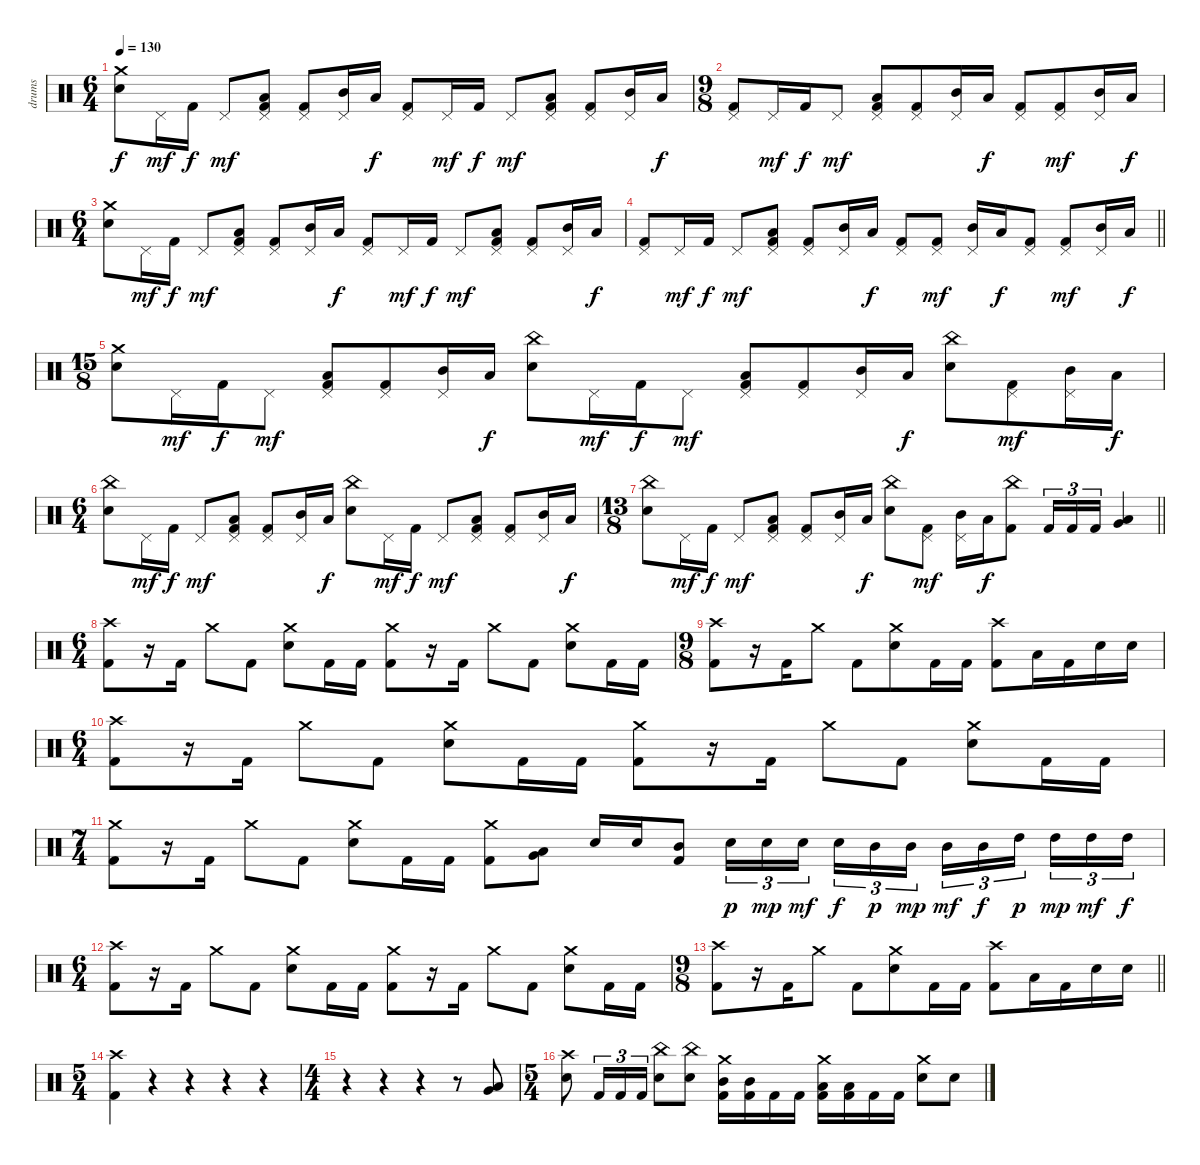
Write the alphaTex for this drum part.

\track ("drums" "drums") {instrument percussion}
\staff {score}
\articulation defaults
\ts (6 4)
\section ("" "")
\tempo 130
\clef neutral
\ks c
("Crash medium (hit)" "Electric Snare (hit)").8{dy f} "Pedal Hi-Hat (hit)".16{dy mf} "Kick (hit) 2".16{dy f} "Pedal Hi-Hat (hit)".8{dy mf} ("Pedal Hi-Hat (hit)" "Low Floor Tom (hit)" "Kick (hit) 2").8 ("Pedal Hi-Hat (hit)" "Kick (hit) 2").8 ("Pedal Hi-Hat (hit)" "Mid Tom (hit)").16 "Low Tom (hit)".16{dy f} ("Pedal Hi-Hat (hit)" "Kick (hit) 2").8 "Pedal Hi-Hat (hit)".16{dy mf} "Kick (hit) 2".16{dy f} "Pedal Hi-Hat (hit)".8{dy mf} ("Pedal Hi-Hat (hit)" "Low Floor Tom (hit)" "Kick (hit) 2").8 ("Pedal Hi-Hat (hit)" "Kick (hit) 2").8 ("Pedal Hi-Hat (hit)" "Mid Tom (hit)").16 "Low Tom (hit)".16{dy f} |
\ts (9 8)
("Pedal Hi-Hat (hit)" "Kick (hit) 2").8 "Pedal Hi-Hat (hit)".16{dy mf} "Kick (hit) 2".16{dy f} "Pedal Hi-Hat (hit)".8{dy mf} ("Pedal Hi-Hat (hit)" "Low Floor Tom (hit)" "Kick (hit) 2").8 ("Pedal Hi-Hat (hit)" "Kick (hit) 2").8 ("Pedal Hi-Hat (hit)" "Mid Tom (hit)").16 "Low Tom (hit)".16{dy f} ("Pedal Hi-Hat (hit)" "Kick (hit) 2").8 ("Pedal Hi-Hat (hit)" "Kick (hit) 2").8{dy mf} ("Pedal Hi-Hat (hit)" "Mid Tom (hit)").16 "Low Tom (hit)".16{dy f} |
\ts (6 4)
("Crash medium (hit)" "Electric Snare (hit)").8 "Pedal Hi-Hat (hit)".16{dy mf} "Kick (hit) 2".16{dy f} "Pedal Hi-Hat (hit)".8{dy mf} ("Pedal Hi-Hat (hit)" "Low Floor Tom (hit)" "Kick (hit) 2").8 ("Pedal Hi-Hat (hit)" "Kick (hit) 2").8 ("Pedal Hi-Hat (hit)" "Mid Tom (hit)").16 "Low Tom (hit)".16{dy f} ("Pedal Hi-Hat (hit)" "Kick (hit) 2").8 "Pedal Hi-Hat (hit)".16{dy mf} "Kick (hit) 2".16{dy f} "Pedal Hi-Hat (hit)".8{dy mf} ("Pedal Hi-Hat (hit)" "Low Floor Tom (hit)" "Kick (hit) 2").8 ("Pedal Hi-Hat (hit)" "Kick (hit) 2").8 ("Pedal Hi-Hat (hit)" "Mid Tom (hit)").16 "Low Tom (hit)".16{dy f} |
\barLineRight lightlight
("Pedal Hi-Hat (hit)" "Kick (hit) 2").8 "Pedal Hi-Hat (hit)".16{dy mf} "Kick (hit) 2".16{dy f} "Pedal Hi-Hat (hit)".8{dy mf} ("Pedal Hi-Hat (hit)" "Low Floor Tom (hit)" "Kick (hit) 2").8 ("Pedal Hi-Hat (hit)" "Kick (hit) 2").8 ("Pedal Hi-Hat (hit)" "Mid Tom (hit)").16 "Low Tom (hit)".16{dy f} ("Pedal Hi-Hat (hit)" "Kick (hit) 2").8 ("Pedal Hi-Hat (hit)" "Kick (hit) 2").8{dy mf} ("Pedal Hi-Hat (hit)" "Mid Tom (hit)").16 "Low Tom (hit)".16{dy f} ("Pedal Hi-Hat (hit)" "Kick (hit) 2").8 ("Pedal Hi-Hat (hit)" "Kick (hit) 2").8{dy mf} ("Pedal Hi-Hat (hit)" "Mid Tom (hit)").16 "Low Tom (hit)".16{dy f} |
\ts (15 8)
("Crash medium (hit)" "Electric Snare (hit)").8 "Pedal Hi-Hat (hit)".16{dy mf} "Kick (hit) 2".16{dy f} "Pedal Hi-Hat (hit)".8{dy mf} ("Pedal Hi-Hat (hit)" "Low Floor Tom (hit)" "Kick (hit) 2").8 ("Pedal Hi-Hat (hit)" "Kick (hit) 2").8 ("Pedal Hi-Hat (hit)" "Mid Tom (hit)").16 "Low Tom (hit)".16{dy f} ("China (hit)" "Electric Snare (hit)").8 "Pedal Hi-Hat (hit)".16{dy mf} "Kick (hit) 2".16{dy f} "Pedal Hi-Hat (hit)".8{dy mf} ("Pedal Hi-Hat (hit)" "Low Floor Tom (hit)" "Kick (hit) 2").8 ("Pedal Hi-Hat (hit)" "Kick (hit) 2").8 ("Pedal Hi-Hat (hit)" "Mid Tom (hit)").16 "Low Tom (hit)".16{dy f} ("China (hit)" "Electric Snare (hit)").8 ("Pedal Hi-Hat (hit)" "Kick (hit) 2").8{dy mf} ("Pedal Hi-Hat (hit)" "Mid Tom (hit)").16 "Low Tom (hit)".16{dy f} |
\ts (6 4)
("China (hit)" "Electric Snare (hit)").8 "Pedal Hi-Hat (hit)".16{dy mf} "Kick (hit) 2".16{dy f} "Pedal Hi-Hat (hit)".8{dy mf} ("Pedal Hi-Hat (hit)" "Low Floor Tom (hit)" "Kick (hit) 2").8 ("Pedal Hi-Hat (hit)" "Kick (hit) 2").8 ("Pedal Hi-Hat (hit)" "Mid Tom (hit)").16 "Low Tom (hit)".16{dy f} ("China (hit)" "Electric Snare (hit)").8 "Pedal Hi-Hat (hit)".16{dy mf} "Kick (hit) 2".16{dy f} "Pedal Hi-Hat (hit)".8{dy mf} ("Pedal Hi-Hat (hit)" "Low Floor Tom (hit)" "Kick (hit) 2").8 ("Pedal Hi-Hat (hit)" "Kick (hit) 2").8 ("Pedal Hi-Hat (hit)" "Mid Tom (hit)").16 "Low Tom (hit)".16{dy f} |
\ts (13 8)
\barLineRight lightlight
("China (hit)" "Electric Snare (hit)").8 "Pedal Hi-Hat (hit)".16{dy mf} "Kick (hit) 2".16{dy f} "Pedal Hi-Hat (hit)".8{dy mf} ("Pedal Hi-Hat (hit)" "Low Floor Tom (hit)" "Kick (hit) 2").8 ("Pedal Hi-Hat (hit)" "Kick (hit) 2").8 ("Pedal Hi-Hat (hit)" "Mid Tom (hit)").16 "Low Tom (hit)".16{dy f} ("China (hit)" "Electric Snare (hit)").8 ("Pedal Hi-Hat (hit)" "Kick (hit) 2").8{dy mf} ("Pedal Hi-Hat (hit)" "Mid Tom (hit)").16 "Low Tom (hit)".16{dy f} ("China (hit)" "Kick (hit) 2").8 "Kick (hit) 2".16{tu (3 2)} "Kick (hit) 2".16{tu (3 2)} "Kick (hit) 2".16{tu (3 2)} ("Very Low Tom (hit)" "Low Floor Tom (hit)").4 |
\ts (6 4)
\section ("" "")
("Crash high (hit)" "Kick (hit) 2").8 r.16 "Kick (hit) 2".16 "Crash medium (hit)".8 "Kick (hit) 2".8 ("Crash medium (hit)" "Electric Snare (hit)").8 "Kick (hit) 2".16 "Kick (hit) 2".16 ("Crash medium (hit)" "Kick (hit) 2").8 r.16 "Kick (hit) 2".16 "Crash medium (hit)".8 "Kick (hit) 2".8 ("Crash medium (hit)" "Electric Snare (hit)").8 "Kick (hit) 2".16 "Kick (hit) 2".16 |
\ts (9 8)
("Crash high (hit)" "Kick (hit) 2").8 r.16 "Kick (hit) 2".16 "Crash medium (hit)".8 "Kick (hit) 2".8 ("Crash medium (hit)" "Electric Snare (hit)").8 "Kick (hit) 2".16 "Kick (hit) 2".16 ("Crash high (hit)" "Kick (hit) 2").8 "Low Floor Tom (hit)".16 "Kick (hit) 2".16 "Electric Snare (hit)".16 "Electric Snare (hit)".16 |
\ts (6 4)
("Crash high (hit)" "Kick (hit) 2").8 r.16 "Kick (hit) 2".16 "Crash medium (hit)".8 "Kick (hit) 2".8 ("Crash medium (hit)" "Electric Snare (hit)").8 "Kick (hit) 2".16 "Kick (hit) 2".16 ("Crash medium (hit)" "Kick (hit) 2").8 r.16 "Kick (hit) 2".16 "Crash medium (hit)".8 "Kick (hit) 2".8 ("Crash medium (hit)" "Electric Snare (hit)").8 "Kick (hit) 2".16 "Kick (hit) 2".16 |
\ts (7 4)
("Crash medium (hit)" "Kick (hit) 2").8 r.16 "Kick (hit) 2".16 "Crash medium (hit)".8 "Kick (hit) 2".8 ("Crash medium (hit)" "Electric Snare (hit)").8 "Kick (hit) 2".16 "Kick (hit) 2".16 ("Crash medium (hit)" "Kick (hit) 2").8 ("Very Low Tom (hit)" "Low Floor Tom (hit)").8 "Electric Snare (hit)".16 "Electric Snare (hit)".16 ("Mid Tom (hit)" "Kick (hit) 2").8 "Electric Snare (hit)".16{tu (3 2) dy p} "Electric Snare (hit)".16{tu (3 2) dy mp} "Electric Snare (hit)".16{tu (3 2) dy mf} "Electric Snare (hit)".16{tu (3 2) dy f} "Mid Tom (hit)".16{tu (3 2) dy p} "Mid Tom (hit)".16{tu (3 2) dy mp} "Mid Tom (hit)".16{tu (3 2) dy mf} "Mid Tom (hit)".16{tu (3 2) dy f} "High Tom (hit)".16{tu (3 2) dy p} "High Tom (hit)".16{tu (3 2) dy mp} "High Tom (hit)".16{tu (3 2) dy mf} "High Tom (hit)".16{tu (3 2) dy f} |
\ts (6 4)
("Crash high (hit)" "Kick (hit) 2").8 r.16 "Kick (hit) 2".16 "Crash medium (hit)".8 "Kick (hit) 2".8 ("Crash medium (hit)" "Electric Snare (hit)").8 "Kick (hit) 2".16 "Kick (hit) 2".16 ("Crash medium (hit)" "Kick (hit) 2").8 r.16 "Kick (hit) 2".16 "Crash medium (hit)".8 "Kick (hit) 2".8 ("Crash medium (hit)" "Electric Snare (hit)").8 "Kick (hit) 2".16 "Kick (hit) 2".16 |
\ts (9 8)
\barLineRight lightlight
("Crash high (hit)" "Kick (hit) 2").8 r.16 "Kick (hit) 2".16 "Crash medium (hit)".8 "Kick (hit) 2".8 ("Crash medium (hit)" "Electric Snare (hit)").8 "Kick (hit) 2".16 "Kick (hit) 2".16 ("Crash high (hit)" "Kick (hit) 2").8 "Low Floor Tom (hit)".16 "Kick (hit) 2".16 "Electric Snare (hit)".16 "Electric Snare (hit)".16 |
\ts (5 4)
\section ("" "")
("Crash high (hit)" "Kick (hit) 2").4 r.4 r.4 r.4 r.4 |
\ts (4 4)
r.4 r.4 r.4 r.8 ("Low Floor Tom (hit)" "Very Low Tom (hit)").8 |
\ts (5 4)
("Crash high (hit)" "Electric Snare (hit)").8 "Kick (hit) 2".16{tu (3 2)} "Kick (hit) 2".16{tu (3 2)} "Kick (hit) 2".16{tu (3 2)} ("China (hit)" "Electric Snare (hit)").8 ("China (hit)" "Electric Snare (hit)").8 ("Crash medium (hit)" "Mid Tom (hit)" "Kick (hit) 2").16 ("Mid Tom (hit)" "Kick (hit) 2").16 "Kick (hit) 2".16 "Kick (hit) 2".16 ("Crash medium (hit)" "Low Tom (hit)" "Kick (hit) 2").16 ("Low Tom (hit)" "Kick (hit) 2").16 "Kick (hit) 2".16 "Kick (hit) 2".16 ("Crash medium (hit)" "Electric Snare (hit)").8 "Electric Snare (hit)".8
